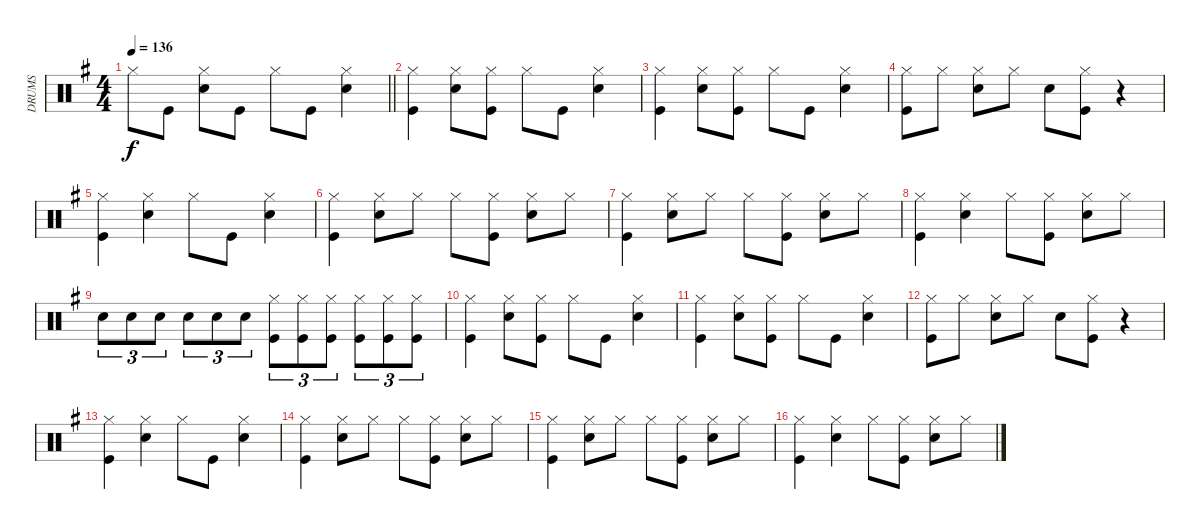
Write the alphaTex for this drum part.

\track ("DRUMS" "DRUMS") {instrument percussion}
\staff {score}
\articulation defaults
\ts (4 4)
\tempo 136
\clef neutral
\barLineRight lightlight
\ks eminor "Hi-Hat (closed)".8{dy f} "Kick (hit)".8
("Hi-Hat (closed)" "Snare (hit) 2").8 "Kick (hit)".8 "Hi-Hat (closed)".8 "Kick (hit)".8 ("Hi-Hat (closed)" "Snare (hit) 2").4 |
("Hi-Hat (closed)" "Kick (hit)").4 ("Hi-Hat (closed)" "Snare (hit) 2").8 ("Hi-Hat (closed)" "Kick (hit)").8 "Hi-Hat (closed)".8 "Kick (hit)".8 ("Hi-Hat (closed)" "Snare (hit) 2").4 |
("Hi-Hat (closed)" "Kick (hit)").4 ("Hi-Hat (closed)" "Snare (hit) 2").8 ("Hi-Hat (closed)" "Kick (hit)").8 "Hi-Hat (closed)".8 "Kick (hit)".8 ("Hi-Hat (closed)" "Snare (hit) 2").4 |
("Hi-Hat (closed)" "Kick (hit)").8 "Hi-Hat (closed)".8 ("Hi-Hat (closed)" "Snare (hit) 2").8 "Hi-Hat (closed)".8 "Snare (hit) 2".8 ("Hi-Hat (closed)" "Kick (hit)").8 r.4 |
("Hi-Hat (closed)" "Kick (hit)").4 ("Hi-Hat (closed)" "Snare (hit) 2").4 "Hi-Hat (closed)".8 "Kick (hit)".8 ("Hi-Hat (closed)" "Snare (hit) 2").4 |
("Hi-Hat (closed)" "Kick (hit)").4 ("Hi-Hat (closed)" "Snare (hit) 2").8 "Hi-Hat (closed)".8 "Hi-Hat (closed)".8 ("Hi-Hat (closed)" "Kick (hit)").8 ("Hi-Hat (closed)" "Snare (hit) 2").8 "Hi-Hat (closed)".8 |
("Hi-Hat (closed)" "Kick (hit)").4 ("Hi-Hat (closed)" "Snare (hit) 2").8 "Hi-Hat (closed)".8 "Hi-Hat (closed)".8 ("Hi-Hat (closed)" "Kick (hit)").8 ("Hi-Hat (closed)" "Snare (hit) 2").8 "Hi-Hat (closed)".8 |
("Hi-Hat (closed)" "Kick (hit)").4 ("Hi-Hat (closed)" "Snare (hit) 2").4 "Hi-Hat (closed)".8 ("Hi-Hat (closed)" "Kick (hit)").8 ("Hi-Hat (closed)" "Snare (hit) 2").8 "Hi-Hat (closed)".8 |
"Snare (hit) 2".8{tu (3 2)} "Snare (hit) 2".8{tu (3 2)} "Snare (hit) 2".8{tu (3 2)} "Snare (hit) 2".8{tu (3 2)} "Snare (hit) 2".8{tu (3 2)} "Snare (hit) 2".8{tu (3 2)} ("Hi-Hat (closed)" "Kick (hit)").8{tu (3 2)} ("Hi-Hat (closed)" "Kick (hit)").8{tu (3 2)} ("Hi-Hat (closed)" "Kick (hit)").8{tu (3 2)} ("Hi-Hat (closed)" "Kick (hit)").8{tu (3 2)} ("Hi-Hat (closed)" "Kick (hit)").8{tu (3 2)} ("Hi-Hat (closed)" "Kick (hit)").8{tu (3 2)} |
("Hi-Hat (closed)" "Kick (hit)").4 ("Hi-Hat (closed)" "Snare (hit) 2").8 ("Hi-Hat (closed)" "Kick (hit)").8 "Hi-Hat (closed)".8 "Kick (hit)".8 ("Hi-Hat (closed)" "Snare (hit) 2").4 |
("Hi-Hat (closed)" "Kick (hit)").4 ("Hi-Hat (closed)" "Snare (hit) 2").8 ("Hi-Hat (closed)" "Kick (hit)").8 "Hi-Hat (closed)".8 "Kick (hit)".8 ("Hi-Hat (closed)" "Snare (hit) 2").4 |
("Hi-Hat (closed)" "Kick (hit)").8 "Hi-Hat (closed)".8 ("Hi-Hat (closed)" "Snare (hit) 2").8 "Hi-Hat (closed)".8 "Snare (hit) 2".8 ("Hi-Hat (closed)" "Kick (hit)").8 r.4 |
("Hi-Hat (closed)" "Kick (hit)").4 ("Hi-Hat (closed)" "Snare (hit) 2").4 "Hi-Hat (closed)".8 "Kick (hit)".8 ("Hi-Hat (closed)" "Snare (hit) 2").4 |
("Hi-Hat (closed)" "Kick (hit)").4 ("Hi-Hat (closed)" "Snare (hit) 2").8 "Hi-Hat (closed)".8 "Hi-Hat (closed)".8 ("Hi-Hat (closed)" "Kick (hit)").8 ("Hi-Hat (closed)" "Snare (hit) 2").8 "Hi-Hat (closed)".8 |
("Hi-Hat (closed)" "Kick (hit)").4 ("Hi-Hat (closed)" "Snare (hit) 2").8 "Hi-Hat (closed)".8 "Hi-Hat (closed)".8 ("Hi-Hat (closed)" "Kick (hit)").8 ("Hi-Hat (closed)" "Snare (hit) 2").8 "Hi-Hat (closed)".8 |
("Hi-Hat (closed)" "Kick (hit)").4 ("Hi-Hat (closed)" "Snare (hit) 2").4 "Hi-Hat (closed)".8 ("Hi-Hat (closed)" "Kick (hit)").8 ("Hi-Hat (closed)" "Snare (hit) 2").8 "Hi-Hat (closed)".8
